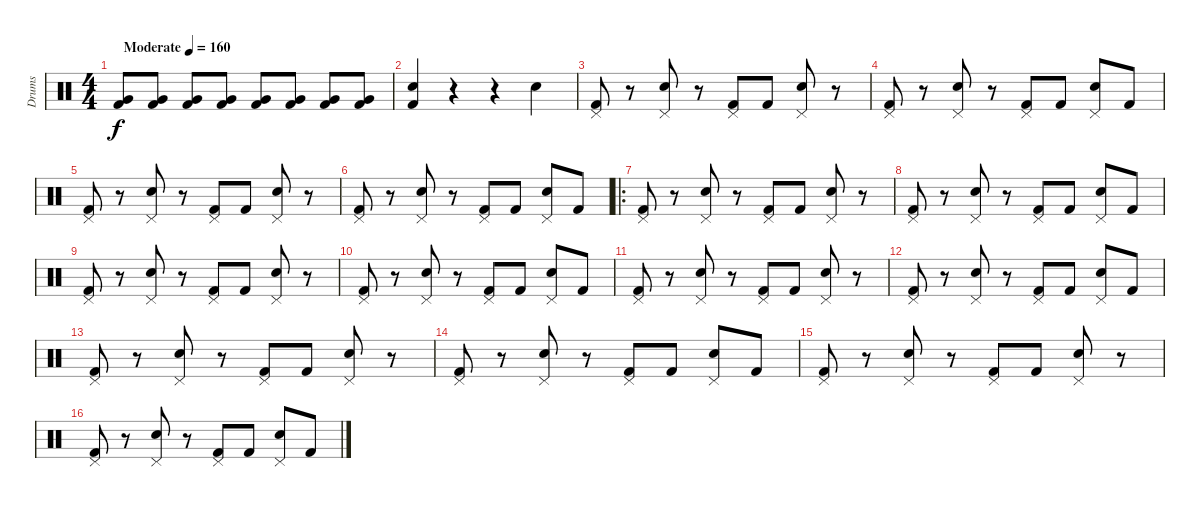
\track ("Drums" "Drums") {instrument percussion}
\staff {score}
\articulation defaults
\ts (4 4)
\tempo (160 "Moderate")
\clef neutral
\ks c
("Very Low Tom (hit)" "Kick (hit) 2").8{dy f} ("Very Low Tom (hit)" "Kick (hit) 2").8 ("Very Low Tom (hit)" "Kick (hit) 2").8 ("Very Low Tom (hit)" "Kick (hit) 2").8 ("Very Low Tom (hit)" "Kick (hit) 2").8 ("Very Low Tom (hit)" "Kick (hit) 2").8 ("Very Low Tom (hit)" "Kick (hit) 2").8 ("Very Low Tom (hit)" "Kick (hit) 2").8 |
("Snare (hit) 2" "Kick (hit) 2").4 r.4 r.4 "Snare (hit) 2".4 |
("Pedal Hi-Hat (hit)" "Kick (hit) 2").8 r.8 ("Pedal Hi-Hat (hit)" "Snare (hit) 2").8 r.8 ("Pedal Hi-Hat (hit)" "Kick (hit) 2").8 "Kick (hit) 2".8 ("Pedal Hi-Hat (hit)" "Snare (hit) 2").8 r.8 |
("Pedal Hi-Hat (hit)" "Kick (hit) 2").8 r.8 ("Pedal Hi-Hat (hit)" "Snare (hit) 2").8 r.8 ("Pedal Hi-Hat (hit)" "Kick (hit) 2").8 "Kick (hit) 2".8 ("Pedal Hi-Hat (hit)" "Snare (hit) 2").8 "Kick (hit) 2".8 |
("Pedal Hi-Hat (hit)" "Kick (hit) 2").8 r.8 ("Pedal Hi-Hat (hit)" "Snare (hit) 2").8 r.8 ("Pedal Hi-Hat (hit)" "Kick (hit) 2").8 "Kick (hit) 2".8 ("Pedal Hi-Hat (hit)" "Snare (hit) 2").8 r.8 |
("Pedal Hi-Hat (hit)" "Kick (hit) 2").8 r.8 ("Pedal Hi-Hat (hit)" "Snare (hit) 2").8 r.8 ("Pedal Hi-Hat (hit)" "Kick (hit) 2").8 "Kick (hit) 2".8 ("Pedal Hi-Hat (hit)" "Snare (hit) 2").8 "Kick (hit) 2".8 |
\ro
("Pedal Hi-Hat (hit)" "Kick (hit) 2").8 r.8 ("Pedal Hi-Hat (hit)" "Snare (hit) 2").8 r.8 ("Pedal Hi-Hat (hit)" "Kick (hit) 2").8 "Kick (hit) 2".8 ("Pedal Hi-Hat (hit)" "Snare (hit) 2").8 r.8 |
("Pedal Hi-Hat (hit)" "Kick (hit) 2").8 r.8 ("Pedal Hi-Hat (hit)" "Snare (hit) 2").8 r.8 ("Pedal Hi-Hat (hit)" "Kick (hit) 2").8 "Kick (hit) 2".8 ("Pedal Hi-Hat (hit)" "Snare (hit) 2").8 "Kick (hit) 2".8 |
("Pedal Hi-Hat (hit)" "Kick (hit) 2").8 r.8 ("Pedal Hi-Hat (hit)" "Snare (hit) 2").8 r.8 ("Pedal Hi-Hat (hit)" "Kick (hit) 2").8 "Kick (hit) 2".8 ("Pedal Hi-Hat (hit)" "Snare (hit) 2").8 r.8 |
("Pedal Hi-Hat (hit)" "Kick (hit) 2").8 r.8 ("Pedal Hi-Hat (hit)" "Snare (hit) 2").8 r.8 ("Pedal Hi-Hat (hit)" "Kick (hit) 2").8 "Kick (hit) 2".8 ("Pedal Hi-Hat (hit)" "Snare (hit) 2").8 "Kick (hit) 2".8 |
("Pedal Hi-Hat (hit)" "Kick (hit) 2").8 r.8 ("Pedal Hi-Hat (hit)" "Snare (hit) 2").8 r.8 ("Pedal Hi-Hat (hit)" "Kick (hit) 2").8 "Kick (hit) 2".8 ("Pedal Hi-Hat (hit)" "Snare (hit) 2").8 r.8 |
("Pedal Hi-Hat (hit)" "Kick (hit) 2").8 r.8 ("Pedal Hi-Hat (hit)" "Snare (hit) 2").8 r.8 ("Pedal Hi-Hat (hit)" "Kick (hit) 2").8 "Kick (hit) 2".8 ("Pedal Hi-Hat (hit)" "Snare (hit) 2").8 "Kick (hit) 2".8 |
("Pedal Hi-Hat (hit)" "Kick (hit) 2").8 r.8 ("Pedal Hi-Hat (hit)" "Snare (hit) 2").8 r.8 ("Pedal Hi-Hat (hit)" "Kick (hit) 2").8 "Kick (hit) 2".8 ("Pedal Hi-Hat (hit)" "Snare (hit) 2").8 r.8 |
("Pedal Hi-Hat (hit)" "Kick (hit) 2").8 r.8 ("Pedal Hi-Hat (hit)" "Snare (hit) 2").8 r.8 ("Pedal Hi-Hat (hit)" "Kick (hit) 2").8 "Kick (hit) 2".8 ("Pedal Hi-Hat (hit)" "Snare (hit) 2").8 "Kick (hit) 2".8 |
("Pedal Hi-Hat (hit)" "Kick (hit) 2").8 r.8 ("Pedal Hi-Hat (hit)" "Snare (hit) 2").8 r.8 ("Pedal Hi-Hat (hit)" "Kick (hit) 2").8 "Kick (hit) 2".8 ("Pedal Hi-Hat (hit)" "Snare (hit) 2").8 r.8 |
("Pedal Hi-Hat (hit)" "Kick (hit) 2").8 r.8 ("Pedal Hi-Hat (hit)" "Snare (hit) 2").8 r.8 ("Pedal Hi-Hat (hit)" "Kick (hit) 2").8 "Kick (hit) 2".8 ("Pedal Hi-Hat (hit)" "Snare (hit) 2").8 "Kick (hit) 2".8
